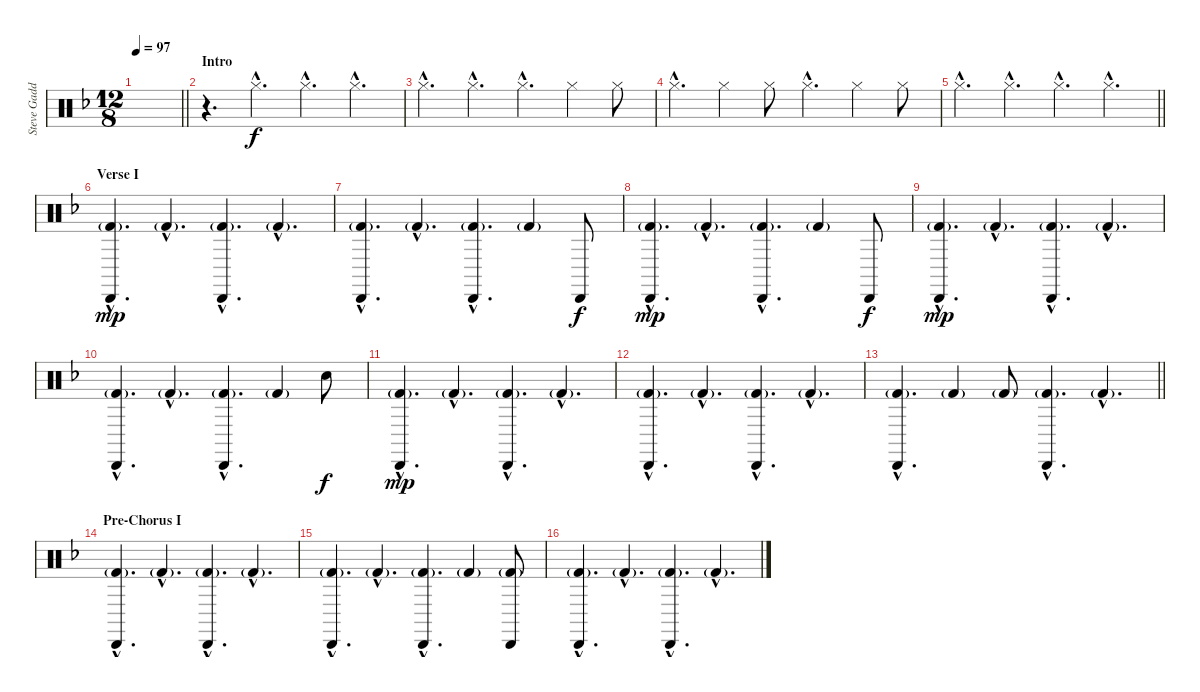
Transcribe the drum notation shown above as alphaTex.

\track ("Steve Gadd Drums" "Steve Gadd") {instrument percussion}
\staff {score}
\articulation defaults
\ts (12 8)
\tempo 97
\clef neutral
\barLineRight lightlight
\ks f
|
\section ("" "Intro")
r.4{d} "Hi-Hat (closed)"{hac}.4{d} "Hi-Hat (closed)"{hac}.4{d} "Hi-Hat (closed)"{hac}.4{d} |
"Hi-Hat (closed)"{hac}.4{d} "Hi-Hat (closed)"{hac}.4{d} "Hi-Hat (closed)"{hac}.4{d} "Hi-Hat (closed)".4 "Hi-Hat (closed)".8 |
"Hi-Hat (closed)"{hac}.4{d} "Hi-Hat (closed)".4 "Hi-Hat (closed)".8 "Hi-Hat (closed)"{hac}.4{d} "Hi-Hat (closed)".4 "Hi-Hat (closed)".8 |
\barLineRight lightlight "Hi-Hat (closed)"{hac}.4{d} "Hi-Hat (closed)"{hac}.4{d} "Hi-Hat (closed)"{hac}.4{d} "Hi-Hat (closed)"{hac}.4{d}
|
\section ("" "Verse I")
("Cabasa (hit)"{hac} "Kick (hit) 2"{g hac}).4{d dy mp} "Kick (hit) 2"{g hac}.4{d} ("Cabasa (hit)"{hac} "Kick (hit) 2"{g hac}).4{d} "Kick (hit) 2"{g hac}.4{d} |
("Cabasa (hit)"{hac} "Kick (hit) 2"{g hac}).4{d} "Kick (hit) 2"{g hac}.4{d} ("Cabasa (hit)"{hac} "Kick (hit) 2"{g hac}).4{d} "Kick (hit) 2"{g}.4 "Cabasa (hit)".8{dy f} |
("Cabasa (hit)"{hac} "Kick (hit) 2"{g hac}).4{d dy mp} "Kick (hit) 2"{g hac}.4{d} ("Cabasa (hit)"{hac} "Kick (hit) 2"{g hac}).4{d} "Kick (hit) 2"{g}.4 "Cabasa (hit)".8{dy f} |
("Cabasa (hit)"{hac} "Kick (hit) 2"{g hac}).4{d dy mp} "Kick (hit) 2"{g hac}.4{d} ("Cabasa (hit)"{hac} "Kick (hit) 2"{g hac}).4{d} "Kick (hit) 2"{g hac}.4{d} |
("Cabasa (hit)"{hac} "Kick (hit) 2"{g hac}).4{d} "Kick (hit) 2"{g hac}.4{d} ("Cabasa (hit)"{hac} "Kick (hit) 2"{g hac}).4{d} "Kick (hit) 2"{g}.4 "Snare (hit) 2".8{dy f} |
("Cabasa (hit)"{hac} "Kick (hit) 2"{g hac}).4{d dy mp} "Kick (hit) 2"{g hac}.4{d} ("Cabasa (hit)"{hac} "Kick (hit) 2"{g hac}).4{d} "Kick (hit) 2"{g hac}.4{d} |
("Cabasa (hit)"{hac} "Kick (hit) 2"{g hac}).4{d} "Kick (hit) 2"{g hac}.4{d} ("Cabasa (hit)"{hac} "Kick (hit) 2"{g hac}).4{d} "Kick (hit) 2"{g hac}.4{d} |
\barLineRight lightlight
("Cabasa (hit)"{hac} "Kick (hit) 2"{g hac}).4{d} "Kick (hit) 2"{g}.4 "Kick (hit) 2"{g}.8 ("Cabasa (hit)"{hac} "Kick (hit) 2"{g hac}).4{d} "Kick (hit) 2"{g hac}.4{d} |
\section ("" "Pre-Chorus I")
("Cabasa (hit)"{hac} "Kick (hit) 2"{g hac}).4{d} "Kick (hit) 2"{g hac}.4{d} ("Cabasa (hit)"{hac} "Kick (hit) 2"{g hac}).4{d} "Kick (hit) 2"{g hac}.4{d} |
("Cabasa (hit)"{hac} "Kick (hit) 2"{g hac}).4{d} "Kick (hit) 2"{g hac}.4{d} ("Cabasa (hit)"{hac} "Kick (hit) 2"{g hac}).4{d} "Kick (hit) 2"{g}.4 ("Cabasa (hit)" "Kick (hit) 2"{g}).8 |
("Cabasa (hit)"{hac} "Kick (hit) 2"{g hac}).4{d} "Kick (hit) 2"{g hac}.4{d} ("Cabasa (hit)"{hac} "Kick (hit) 2"{g hac}).4{d} "Kick (hit) 2"{g hac}.4{d}
